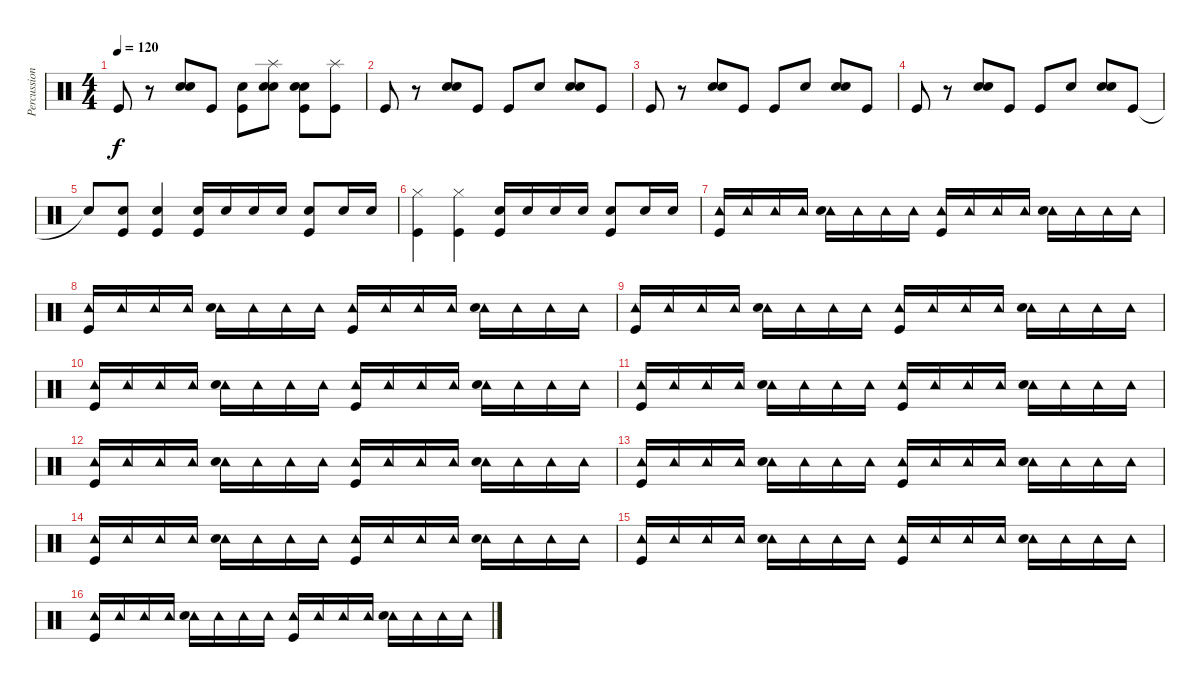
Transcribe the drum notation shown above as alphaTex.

\track ("Percussion" "Percussion") {instrument percussion}
\staff {score}
\articulation defaults
\ts (4 4)
\tempo 120
\clef neutral
\ks c "Kick (hit)".8{dy f}
r.8 ("Hand Clap (hit)" "Snare (hit) 2").8 "Kick (hit)".8 ("Snare (hit) 2" "Kick (hit)").8 ("Splash (hit)" "Hand Clap (hit)" "Snare (hit) 2").8 ("Hand Clap (hit)" "Snare (hit) 2" "Kick (hit)").8 ("Splash (hit)" "Kick (hit)").8 |
"Kick (hit)".8 r.8 ("Hand Clap (hit)" "Snare (hit) 2").8 "Kick (hit)".8 "Kick (hit)".8 "Hand Clap (hit)".8 ("Hand Clap (hit)" "Snare (hit) 2").8 "Kick (hit)".8 |
"Kick (hit)".8 r.8 ("Hand Clap (hit)" "Snare (hit) 2").8 "Kick (hit)".8 "Kick (hit)".8 "Hand Clap (hit)".8 ("Hand Clap (hit)" "Snare (hit) 2").8 "Kick (hit)".8 |
"Kick (hit)".8 r.8 ("Hand Clap (hit)" "Snare (hit) 2").8 "Kick (hit)".8 "Kick (hit)".8 "Hand Clap (hit)".8 ("Hand Clap (hit)" "Snare (hit) 2").8 "Kick (hit)".8 |
"Snare (hit)"{t}.8 ("Snare (hit) 2" "Kick (hit)").8 ("Snare (hit) 2" "Kick (hit)").4 ("Snare (hit) 2" "Kick (hit)").16 "Snare (hit) 2".16 "Snare (hit) 2".16 "Snare (hit) 2".16 ("Snare (hit) 2" "Kick (hit)").8 "Snare (hit) 2".16 "Snare (hit) 2".16 |
("Hi-Hat (closed)" "Kick (hit)").4 ("Hi-Hat (closed)" "Kick (hit)").4 ("Snare (hit) 2" "Kick (hit)").16 "Snare (hit) 2".16 "Snare (hit) 2".16 "Snare (hit) 2".16 ("Snare (hit) 2" "Kick (hit)").8 "Snare (hit) 2".16 "Snare (hit) 2".16 |
("Tambourine (hit)" "Kick (hit)").16 "Tambourine (hit)".16 "Tambourine (hit)".16 "Tambourine (hit)".16 ("Tambourine (hit)" "Snare (hit) 2").16 "Tambourine (hit)".16 "Tambourine (hit)".16 "Tambourine (hit)".16 ("Tambourine (hit)" "Kick (hit)").16 "Tambourine (hit)".16 "Tambourine (hit)".16 "Tambourine (hit)".16 ("Tambourine (hit)" "Snare (hit) 2").16 "Tambourine (hit)".16 "Tambourine (hit)".16 "Tambourine (hit)".16 |
("Tambourine (hit)" "Kick (hit)").16 "Tambourine (hit)".16 "Tambourine (hit)".16 "Tambourine (hit)".16 ("Tambourine (hit)" "Snare (hit) 2").16 "Tambourine (hit)".16 "Tambourine (hit)".16 "Tambourine (hit)".16 ("Tambourine (hit)" "Kick (hit)").16 "Tambourine (hit)".16 "Tambourine (hit)".16 "Tambourine (hit)".16 ("Tambourine (hit)" "Snare (hit) 2").16 "Tambourine (hit)".16 "Tambourine (hit)".16 "Tambourine (hit)".16 |
("Tambourine (hit)" "Kick (hit)").16 "Tambourine (hit)".16 "Tambourine (hit)".16 "Tambourine (hit)".16 ("Tambourine (hit)" "Snare (hit) 2").16 "Tambourine (hit)".16 "Tambourine (hit)".16 "Tambourine (hit)".16 ("Tambourine (hit)" "Kick (hit)").16 "Tambourine (hit)".16 "Tambourine (hit)".16 "Tambourine (hit)".16 ("Tambourine (hit)" "Snare (hit) 2").16 "Tambourine (hit)".16 "Tambourine (hit)".16 "Tambourine (hit)".16 |
("Tambourine (hit)" "Kick (hit)").16 "Tambourine (hit)".16 "Tambourine (hit)".16 "Tambourine (hit)".16 ("Tambourine (hit)" "Snare (hit) 2").16 "Tambourine (hit)".16 "Tambourine (hit)".16 "Tambourine (hit)".16 ("Tambourine (hit)" "Kick (hit)").16 "Tambourine (hit)".16 "Tambourine (hit)".16 "Tambourine (hit)".16 ("Tambourine (hit)" "Snare (hit) 2").16 "Tambourine (hit)".16 "Tambourine (hit)".16 "Tambourine (hit)".16 |
("Tambourine (hit)" "Kick (hit)").16 "Tambourine (hit)".16 "Tambourine (hit)".16 "Tambourine (hit)".16 ("Tambourine (hit)" "Snare (hit) 2").16 "Tambourine (hit)".16 "Tambourine (hit)".16 "Tambourine (hit)".16 ("Tambourine (hit)" "Kick (hit)").16 "Tambourine (hit)".16 "Tambourine (hit)".16 "Tambourine (hit)".16 ("Tambourine (hit)" "Snare (hit) 2").16 "Tambourine (hit)".16 "Tambourine (hit)".16 "Tambourine (hit)".16 |
("Tambourine (hit)" "Kick (hit)").16 "Tambourine (hit)".16 "Tambourine (hit)".16 "Tambourine (hit)".16 ("Tambourine (hit)" "Snare (hit) 2").16 "Tambourine (hit)".16 "Tambourine (hit)".16 "Tambourine (hit)".16 ("Tambourine (hit)" "Kick (hit)").16 "Tambourine (hit)".16 "Tambourine (hit)".16 "Tambourine (hit)".16 ("Tambourine (hit)" "Snare (hit) 2").16 "Tambourine (hit)".16 "Tambourine (hit)".16 "Tambourine (hit)".16 |
("Tambourine (hit)" "Kick (hit)").16 "Tambourine (hit)".16 "Tambourine (hit)".16 "Tambourine (hit)".16 ("Tambourine (hit)" "Snare (hit) 2").16 "Tambourine (hit)".16 "Tambourine (hit)".16 "Tambourine (hit)".16 ("Tambourine (hit)" "Kick (hit)").16 "Tambourine (hit)".16 "Tambourine (hit)".16 "Tambourine (hit)".16 ("Tambourine (hit)" "Snare (hit) 2").16 "Tambourine (hit)".16 "Tambourine (hit)".16 "Tambourine (hit)".16 |
("Tambourine (hit)" "Kick (hit)").16 "Tambourine (hit)".16 "Tambourine (hit)".16 "Tambourine (hit)".16 ("Tambourine (hit)" "Snare (hit) 2").16 "Tambourine (hit)".16 "Tambourine (hit)".16 "Tambourine (hit)".16 ("Tambourine (hit)" "Kick (hit)").16 "Tambourine (hit)".16 "Tambourine (hit)".16 "Tambourine (hit)".16 ("Tambourine (hit)" "Snare (hit) 2").16 "Tambourine (hit)".16 "Tambourine (hit)".16 "Tambourine (hit)".16 |
("Tambourine (hit)" "Kick (hit)").16 "Tambourine (hit)".16 "Tambourine (hit)".16 "Tambourine (hit)".16 ("Tambourine (hit)" "Snare (hit) 2").16 "Tambourine (hit)".16 "Tambourine (hit)".16 "Tambourine (hit)".16 ("Tambourine (hit)" "Kick (hit)").16 "Tambourine (hit)".16 "Tambourine (hit)".16 "Tambourine (hit)".16 ("Tambourine (hit)" "Snare (hit) 2").16 "Tambourine (hit)".16 "Tambourine (hit)".16 "Tambourine (hit)".16 |
("Tambourine (hit)" "Kick (hit)").16 "Tambourine (hit)".16 "Tambourine (hit)".16 "Tambourine (hit)".16 ("Tambourine (hit)" "Snare (hit) 2").16 "Tambourine (hit)".16 "Tambourine (hit)".16 "Tambourine (hit)".16 ("Tambourine (hit)" "Kick (hit)").16 "Tambourine (hit)".16 "Tambourine (hit)".16 "Tambourine (hit)".16 ("Tambourine (hit)" "Snare (hit) 2").16 "Tambourine (hit)".16 "Tambourine (hit)".16 "Tambourine (hit)".16
